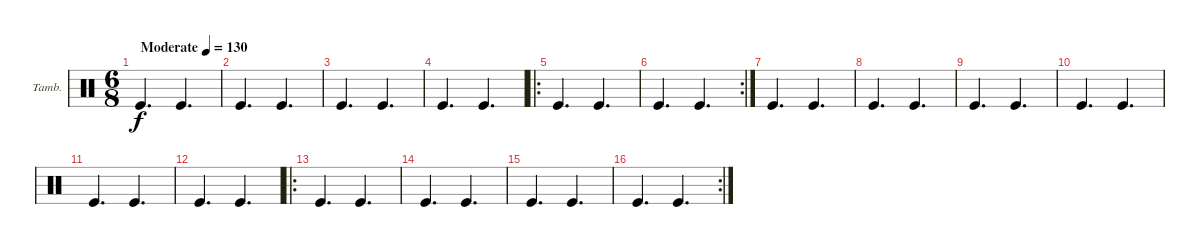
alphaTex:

\bracketExtendMode groupsimilarinstruments
\firstSystemTrackNameOrientation horizontal
\otherSystemsTrackNameOrientation horizontal
\track ("Tambourine" "Tamb.") {instrument percussion}
\staff {score}
\articulation defaults
\ts (6 8)
\beaming (8 3 3)
\tempo (130 "Moderate")
\clef neutral
\ks c "Kick (hit)".4{d dy f} "Kick (hit)".4{d}
|
"Kick (hit)".4{d} "Kick (hit)".4{d} |
"Kick (hit)".4{d} "Kick (hit)".4{d} |
"Kick (hit)".4{d} "Kick (hit)".4{d} |
\ro "Kick (hit)".4{d} "Kick (hit)".4{d}
|
\rc 2 "Kick (hit)".4{d} "Kick (hit)".4{d}
|
"Kick (hit)".4{d} "Kick (hit)".4{d} |
"Kick (hit)".4{d} "Kick (hit)".4{d} |
"Kick (hit)".4{d} "Kick (hit)".4{d} |
"Kick (hit)".4{d} "Kick (hit)".4{d} |
"Kick (hit)".4{d} "Kick (hit)".4{d} |
"Kick (hit)".4{d} "Kick (hit)".4{d} |
\ro "Kick (hit)".4{d} "Kick (hit)".4{d}
|
"Kick (hit)".4{d} "Kick (hit)".4{d} |
"Kick (hit)".4{d} "Kick (hit)".4{d} |
\rc 2 "Kick (hit)".4{d} "Kick (hit)".4{d}
